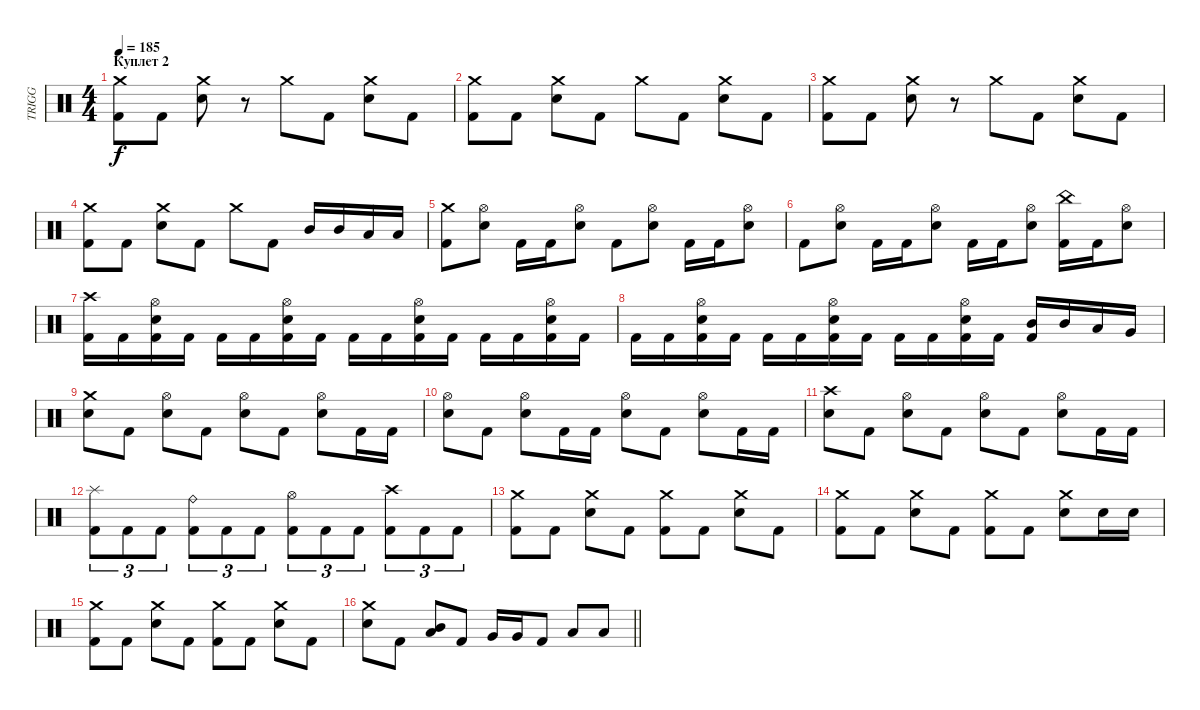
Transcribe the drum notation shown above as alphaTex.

\track ("TRIGG" "TRIGG") {instrument percussion}
\staff {score}
\articulation defaults
\ts (4 4)
\section ("" "Куплет 2")
\tempo 185
\clef neutral
\ks c
("Crash medium (hit)" "Kick (hit) 2").8{dy f} "Kick (hit) 2".8 ("Crash medium (hit)" "Electric Snare (hit)").8 r.8 "Crash medium (hit)".8 "Kick (hit) 2".8 ("Crash medium (hit)" "Electric Snare (hit)").8 "Kick (hit) 2".8 |
("Crash medium (hit)" "Kick (hit) 2").8 "Kick (hit) 2".8 ("Crash medium (hit)" "Electric Snare (hit)").8 "Kick (hit) 2".8 "Crash medium (hit)".8 "Kick (hit) 2".8 ("Crash medium (hit)" "Electric Snare (hit)").8 "Kick (hit) 2".8 |
("Crash medium (hit)" "Kick (hit) 2").8 "Kick (hit) 2".8 ("Crash medium (hit)" "Electric Snare (hit)").8 r.8 "Crash medium (hit)".8 "Kick (hit) 2".8 ("Crash medium (hit)" "Electric Snare (hit)").8 "Kick (hit) 2".8 |
("Crash medium (hit)" "Kick (hit) 2").8 "Kick (hit) 2".8 ("Crash medium (hit)" "Electric Snare (hit)").8 "Kick (hit) 2".8 "Crash medium (hit)".8 "Kick (hit) 2".8 "Mid Tom (hit)".16 "Mid Tom (hit)".16 "Low Tom (hit)".16 "Low Tom (hit)".16 |
("Crash medium (hit)" "Kick (hit) 2").8 ("Hi-Hat (open)" "Electric Snare (hit)").8 "Kick (hit) 2".16 "Kick (hit) 2".16 ("Hi-Hat (open)" "Electric Snare (hit)").8 "Kick (hit) 2".8 ("Hi-Hat (open)" "Electric Snare (hit)").8 "Kick (hit) 2".16 "Kick (hit) 2".16 ("Hi-Hat (open)" "Electric Snare (hit)").8 |
"Kick (hit) 2".8 ("Hi-Hat (open)" "Electric Snare (hit)").8 "Kick (hit) 2".16 "Kick (hit) 2".16 ("Hi-Hat (open)" "Electric Snare (hit)").8 "Kick (hit) 2".16 "Kick (hit) 2".16 ("Hi-Hat (open)" "Electric Snare (hit)").8 ("China (hit)" "Kick (hit) 2").16 "Kick (hit) 2".16 ("Hi-Hat (open)" "Electric Snare (hit)").8 |
("Crash high (hit)" "Kick (hit) 2").16 "Kick (hit) 2".16 ("Hi-Hat (open)" "Electric Snare (hit)" "Kick (hit) 2").16 "Kick (hit) 2".16 "Kick (hit) 2".16 "Kick (hit) 2".16 ("Hi-Hat (open)" "Electric Snare (hit)" "Kick (hit) 2").16 "Kick (hit) 2".16 "Kick (hit) 2".16 "Kick (hit) 2".16 ("Hi-Hat (open)" "Electric Snare (hit)" "Kick (hit) 2").16 "Kick (hit) 2".16 "Kick (hit) 2".16 "Kick (hit) 2".16 ("Hi-Hat (open)" "Electric Snare (hit)" "Kick (hit) 2").16 "Kick (hit) 2".16 |
"Kick (hit) 2".16 "Kick (hit) 2".16 ("Hi-Hat (open)" "Electric Snare (hit)" "Kick (hit) 2").16 "Kick (hit) 2".16 "Kick (hit) 2".16 "Kick (hit) 2".16 ("Hi-Hat (open)" "Electric Snare (hit)" "Kick (hit) 2").16 "Kick (hit) 2".16 "Kick (hit) 2".16 "Kick (hit) 2".16 ("Hi-Hat (open)" "Electric Snare (hit)" "Kick (hit) 2").16 "Kick (hit) 2".16 ("Mid Tom (hit)" "Kick (hit) 2").16 "Mid Tom (hit)".16 "Low Tom (hit)".16 "Very Low Tom (hit)".16 |
("Crash medium (hit)" "Electric Snare (hit)").8 "Kick (hit) 2".8 ("Hi-Hat (open)" "Electric Snare (hit)").8 "Kick (hit) 2".8 ("Hi-Hat (open)" "Electric Snare (hit)").8 "Kick (hit) 2".8 ("Hi-Hat (open)" "Electric Snare (hit)").8 "Kick (hit) 2".16 "Kick (hit) 2".16 |
("Hi-Hat (open)" "Electric Snare (hit)").8 "Kick (hit) 2".8 ("Hi-Hat (open)" "Electric Snare (hit)").8 "Kick (hit) 2".16 "Kick (hit) 2".16 ("Hi-Hat (open)" "Electric Snare (hit)").8 "Kick (hit) 2".8 ("Hi-Hat (open)" "Electric Snare (hit)").8 "Kick (hit) 2".16 "Kick (hit) 2".16 |
("Crash high (hit)" "Electric Snare (hit)").8 "Kick (hit) 2".8 ("Hi-Hat (open)" "Electric Snare (hit)").8 "Kick (hit) 2".8 ("Hi-Hat (open)" "Electric Snare (hit)").8 "Kick (hit) 2".8 ("Hi-Hat (open)" "Electric Snare (hit)").8 "Kick (hit) 2".16 "Kick (hit) 2".16 |
("Splash (hit)" "Kick (hit) 2").8{tu (3 2)} "Kick (hit) 2".8{tu (3 2)} "Kick (hit) 2".8{tu (3 2)} ("Ride (bell)" "Kick (hit) 2").8{tu (3 2)} "Kick (hit) 2".8{tu (3 2)} "Kick (hit) 2".8{tu (3 2)} ("Hi-Hat (open)" "Kick (hit) 2").8{tu (3 2)} "Kick (hit) 2".8{tu (3 2)} "Kick (hit) 2".8{tu (3 2)} ("Crash high (hit)" "Kick (hit) 2").8{tu (3 2)} "Kick (hit) 2".8{tu (3 2)} "Kick (hit) 2".8{tu (3 2)} |
("Crash medium (hit)" "Kick (hit) 2").8 "Kick (hit) 2".8 ("Crash medium (hit)" "Electric Snare (hit)").8 "Kick (hit) 2".8 ("Crash medium (hit)" "Kick (hit) 2").8 "Kick (hit) 2".8 ("Crash medium (hit)" "Electric Snare (hit)").8 "Kick (hit) 2".8 |
("Crash medium (hit)" "Kick (hit) 2").8 "Kick (hit) 2".8 ("Crash medium (hit)" "Electric Snare (hit)").8 "Kick (hit) 2".8 ("Crash medium (hit)" "Kick (hit) 2").8 "Kick (hit) 2".8 ("Crash medium (hit)" "Electric Snare (hit)").8 "Electric Snare (hit)".16 "Electric Snare (hit)".16 |
("Crash medium (hit)" "Kick (hit) 2").8 "Kick (hit) 2".8 ("Crash medium (hit)" "Electric Snare (hit)").8 "Kick (hit) 2".8 ("Crash medium (hit)" "Kick (hit) 2").8 "Kick (hit) 2".8 ("Crash medium (hit)" "Electric Snare (hit)").8 "Kick (hit) 2".8 |
\barLineRight lightlight
("Crash medium (hit)" "Electric Snare (hit)").8 "Kick (hit) 2".8 ("Mid Tom (hit)" "Low Tom (hit)").8 "Kick (hit) 2".8 "Very Low Tom (hit)".16 "Very Low Tom (hit)".16 "Kick (hit) 2".8 "Low Floor Tom (hit)".8 "Low Floor Tom (hit)".8
